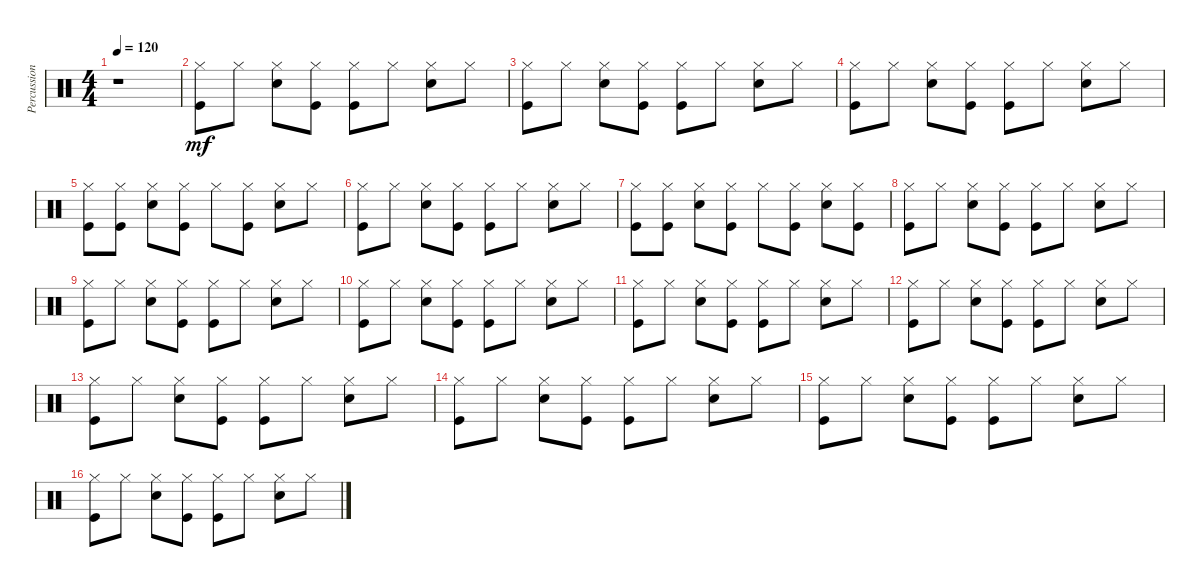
\track ("Percussion" "Percussion") {instrument percussion}
\staff {score}
\articulation defaults
\ts (4 4)
\tempo 120
\clef neutral
\ks c
r.1{dy mf} |
("Hi-Hat (closed)" "Kick (hit)").8 "Hi-Hat (closed)".8 ("Hi-Hat (closed)" "Snare (hit) 2").8 ("Hi-Hat (closed)" "Kick (hit)").8 ("Hi-Hat (closed)" "Kick (hit)").8 "Hi-Hat (closed)".8 ("Hi-Hat (closed)" "Snare (hit) 2").8 "Hi-Hat (closed)".8 |
("Hi-Hat (closed)" "Kick (hit)").8 "Hi-Hat (closed)".8 ("Hi-Hat (closed)" "Snare (hit) 2").8 ("Hi-Hat (closed)" "Kick (hit)").8 ("Hi-Hat (closed)" "Kick (hit)").8 "Hi-Hat (closed)".8 ("Hi-Hat (closed)" "Snare (hit) 2").8 "Hi-Hat (closed)".8 |
("Hi-Hat (closed)" "Kick (hit)").8 "Hi-Hat (closed)".8 ("Hi-Hat (closed)" "Snare (hit) 2").8 ("Hi-Hat (closed)" "Kick (hit)").8 ("Hi-Hat (closed)" "Kick (hit)").8 "Hi-Hat (closed)".8 ("Hi-Hat (closed)" "Snare (hit) 2").8 "Hi-Hat (closed)".8 |
("Hi-Hat (closed)" "Kick (hit)").8 ("Hi-Hat (closed)" "Kick (hit)").8 ("Hi-Hat (closed)" "Snare (hit) 2").8 ("Hi-Hat (closed)" "Kick (hit)").8 "Hi-Hat (closed)".8 ("Hi-Hat (closed)" "Kick (hit)").8 ("Hi-Hat (closed)" "Snare (hit) 2").8 "Hi-Hat (closed)".8 |
("Hi-Hat (closed)" "Kick (hit)").8 "Hi-Hat (closed)".8 ("Hi-Hat (closed)" "Snare (hit) 2").8 ("Hi-Hat (closed)" "Kick (hit)").8 ("Hi-Hat (closed)" "Kick (hit)").8 "Hi-Hat (closed)".8 ("Hi-Hat (closed)" "Snare (hit) 2").8 "Hi-Hat (closed)".8 |
("Hi-Hat (closed)" "Kick (hit)").8 ("Hi-Hat (closed)" "Kick (hit)").8 ("Hi-Hat (closed)" "Snare (hit) 2").8 ("Hi-Hat (closed)" "Kick (hit)").8 "Hi-Hat (closed)".8 ("Hi-Hat (closed)" "Kick (hit)").8 ("Hi-Hat (closed)" "Snare (hit) 2").8 ("Hi-Hat (closed)" "Kick (hit)").8 |
("Hi-Hat (closed)" "Kick (hit)").8 "Hi-Hat (closed)".8 ("Hi-Hat (closed)" "Snare (hit) 2").8 ("Hi-Hat (closed)" "Kick (hit)").8 ("Hi-Hat (closed)" "Kick (hit)").8 "Hi-Hat (closed)".8 ("Hi-Hat (closed)" "Snare (hit) 2").8 "Hi-Hat (closed)".8 |
("Hi-Hat (closed)" "Kick (hit)").8 "Hi-Hat (closed)".8 ("Hi-Hat (closed)" "Snare (hit) 2").8 ("Hi-Hat (closed)" "Kick (hit)").8 ("Hi-Hat (closed)" "Kick (hit)").8 "Hi-Hat (closed)".8 ("Hi-Hat (closed)" "Snare (hit) 2").8 "Hi-Hat (closed)".8 |
("Hi-Hat (closed)" "Kick (hit)").8 "Hi-Hat (closed)".8 ("Hi-Hat (closed)" "Snare (hit) 2").8 ("Hi-Hat (closed)" "Kick (hit)").8 ("Hi-Hat (closed)" "Kick (hit)").8 "Hi-Hat (closed)".8 ("Hi-Hat (closed)" "Snare (hit) 2").8 "Hi-Hat (closed)".8 |
("Hi-Hat (closed)" "Kick (hit)").8 "Hi-Hat (closed)".8 ("Hi-Hat (closed)" "Snare (hit) 2").8 ("Hi-Hat (closed)" "Kick (hit)").8 ("Hi-Hat (closed)" "Kick (hit)").8 "Hi-Hat (closed)".8 ("Hi-Hat (closed)" "Snare (hit) 2").8 "Hi-Hat (closed)".8 |
("Hi-Hat (closed)" "Kick (hit)").8 "Hi-Hat (closed)".8 ("Hi-Hat (closed)" "Snare (hit) 2").8 ("Hi-Hat (closed)" "Kick (hit)").8 ("Hi-Hat (closed)" "Kick (hit)").8 "Hi-Hat (closed)".8 ("Hi-Hat (closed)" "Snare (hit) 2").8 "Hi-Hat (closed)".8 |
("Hi-Hat (closed)" "Kick (hit)").8 "Hi-Hat (closed)".8 ("Hi-Hat (closed)" "Snare (hit) 2").8 ("Hi-Hat (closed)" "Kick (hit)").8 ("Hi-Hat (closed)" "Kick (hit)").8 "Hi-Hat (closed)".8 ("Hi-Hat (closed)" "Snare (hit) 2").8 "Hi-Hat (closed)".8 |
("Hi-Hat (closed)" "Kick (hit)").8 "Hi-Hat (closed)".8 ("Hi-Hat (closed)" "Snare (hit) 2").8 ("Hi-Hat (closed)" "Kick (hit)").8 ("Hi-Hat (closed)" "Kick (hit)").8 "Hi-Hat (closed)".8 ("Hi-Hat (closed)" "Snare (hit) 2").8 "Hi-Hat (closed)".8 |
("Hi-Hat (closed)" "Kick (hit)").8 "Hi-Hat (closed)".8 ("Hi-Hat (closed)" "Snare (hit) 2").8 ("Hi-Hat (closed)" "Kick (hit)").8 ("Hi-Hat (closed)" "Kick (hit)").8 "Hi-Hat (closed)".8 ("Hi-Hat (closed)" "Snare (hit) 2").8 "Hi-Hat (closed)".8 |
("Hi-Hat (closed)" "Kick (hit)").8 "Hi-Hat (closed)".8 ("Hi-Hat (closed)" "Snare (hit) 2").8 ("Hi-Hat (closed)" "Kick (hit)").8 ("Hi-Hat (closed)" "Kick (hit)").8 "Hi-Hat (closed)".8 ("Hi-Hat (closed)" "Snare (hit) 2").8 "Hi-Hat (closed)".8
